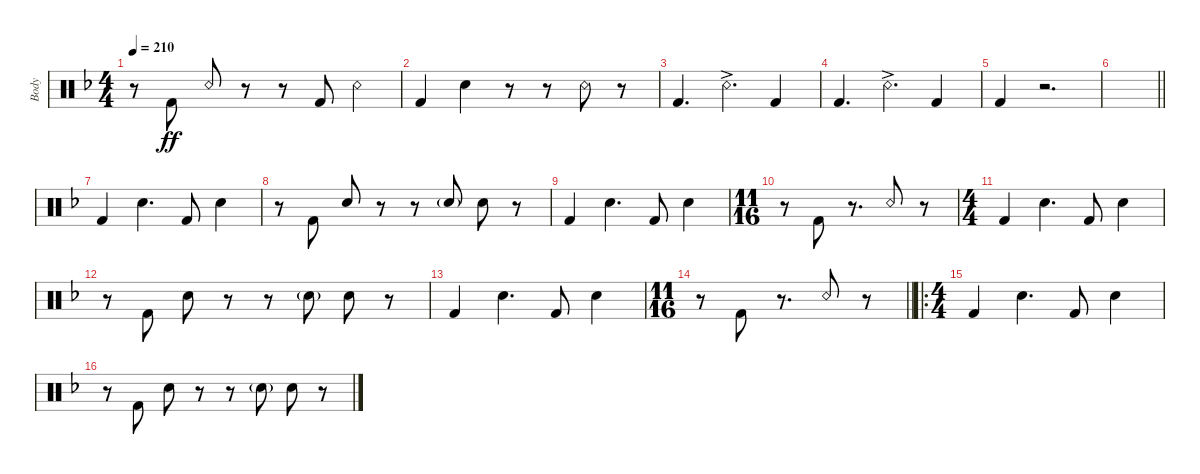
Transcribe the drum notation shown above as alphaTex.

\defaultSystemsLayout 2
\bracketExtendMode groupsimilarinstruments
\otherSystemsTrackNameOrientation horizontal
\track ("Body" "Body") {instrument percussion}
\staff {score}
\articulation defaults
\ts (4 4)
\scale
1.03751
\tempo 210
\accidentals auto
\clef neutral
\ottava regular
\simile none
\scale
0.333333
\ks dminor
r.8{dy ff beam Down} "Kick (hit) 2"{acc forcenatural}.8{beam Up} "Snare (rim shot)"{acc forcenatural}.8{beam Up} r.8{beam Up} r.8{beam Up} "Kick (hit) 2"{acc forcenatural}.8{beam Up} "Snare (rim shot)"{acc forcenatural}.4{beam Down} |
\scale
0.962487
\scale
0.333333 "Kick (hit) 2"{acc forcenatural}.4{beam Up} "Snare (hit) 2"{acc forcenatural}.4{beam Down} r.8{beam Down} r.8{beam Down} "Snare (rim shot)"{acc forcenatural}.8{beam Down} r.8{beam Down} |
\scale
1.04787
\scale
0.333333 "Kick (hit) 2"{acc forcenatural}.4{d beam Up} "Snare (rim shot)"{ac acc forcenatural}.4{d beam Down} "Kick (hit) 2"{acc forcenatural}.4{beam Up} |
\scale
0.952125
\scale
0.333333 "Kick (hit) 2"{acc forcenatural}.4{d beam Up} "Snare (rim shot)"{ac acc forcenatural}.4{d beam Down} "Kick (hit) 2"{acc forcenatural}.4{beam Up} |
\scale
1.05155
\scale
0.333333 "Kick (hit) 2"{acc forcenatural}.4{beam Up} r.2{d beam Up} |
\scale
0.948449
\scale
0.333333
\barLineRight lightlight
|
\scale
1.04787
\scale
0.333333 "Kick (hit) 2"{acc forcenatural}.4{beam Up} "Snare (hit) 2"{acc forcenatural}.4{d beam Down} "Kick (hit) 2"{acc forcenatural}.8{beam Up} "Snare (hit) 2"{acc forcenatural}.4{beam Down} |
\scale
0.952125
\scale
0.333333 r.8{beam Down} "Kick (hit) 2"{acc forcenatural}.8{beam Up} "Snare (hit) 2"{acc forcenatural}.8{beam Up} r.8{beam Up} r.8{beam Up} "Snare (hit) 2"{g acc forcenatural}.8{beam Down} "Snare (hit) 2"{acc forcenatural}.8{beam Down} r.8{beam Down} |
\scale
1.01989
\scale
0.333333 "Kick (hit) 2"{acc forcenatural}.4{beam Up} "Snare (hit) 2"{acc forcenatural}.4{d beam Down} "Kick (hit) 2"{acc forcenatural}.8{beam Up} "Snare (hit) 2"{acc forcenatural}.4{beam Down} |
\ts (11 16)
\scale
0.980114
\scale
0.333333 r.8{beam Down} "Kick (hit) 2"{acc forcenatural}.8{beam Up} r.8{d beam Up} "Snare (rim shot)"{acc forcenatural}.8{beam Down} r.8{beam Down} |
\ts (4 4)
\scale
1.06642
\scale
0.333333 "Kick (hit) 2"{acc forcenatural}.4{beam Up} "Snare (hit) 2"{acc forcenatural}.4{d beam Down} "Kick (hit) 2"{acc forcenatural}.8{beam Up} "Snare (hit) 2"{acc forcenatural}.4{beam Down} |
\scale
0.933576
\scale
0.333333 r.8{beam Down} "Kick (hit) 2"{acc forcenatural}.8{beam Up} "Snare (hit) 2"{acc forcenatural}.8{beam Down} r.8{beam Down} r.8{beam Down} "Snare (hit) 2"{g acc forcenatural}.8{beam Down} "Snare (hit) 2"{acc forcenatural}.8{beam Down} r.8{beam Down} |
\scale
1.01521
\scale
0.333333 "Kick (hit) 2"{acc forcenatural}.4{beam Up} "Snare (hit) 2"{acc forcenatural}.4{d beam Down} "Kick (hit) 2"{acc forcenatural}.8{beam Up} "Snare (hit) 2"{acc forcenatural}.4{beam Down} |
\ts (11 16)
\scale
0.984793
\scale
0.333333
\barLineRight lightlight
r.8{beam Down} "Kick (hit) 2"{acc forcenatural}.8{beam Up} r.8{d beam Up} "Snare (rim shot)"{acc forcenatural}.8{beam Down} r.8{beam Down} |
\ro
\ts (4 4)
\scale
1.07996
\scale
0.333333 "Kick (hit) 2"{acc forcenatural}.4{beam Up} "Snare (hit) 2"{acc forcenatural}.4{d beam Down} "Kick (hit) 2"{acc forcenatural}.8{beam Up} "Snare (hit) 2"{acc forcenatural}.4{beam Down} |
\scale
0.920041
\scale
0.333333 r.8{beam Down} "Kick (hit) 2"{acc forcenatural}.8{beam Up} "Snare (hit) 2"{acc forcenatural}.8{beam Down} r.8{beam Down} r.8{beam Down} "Snare (hit) 2"{g acc forcenatural}.8{beam Down} "Snare (hit) 2"{acc forcenatural}.8{beam Down} r.8{beam Down}
